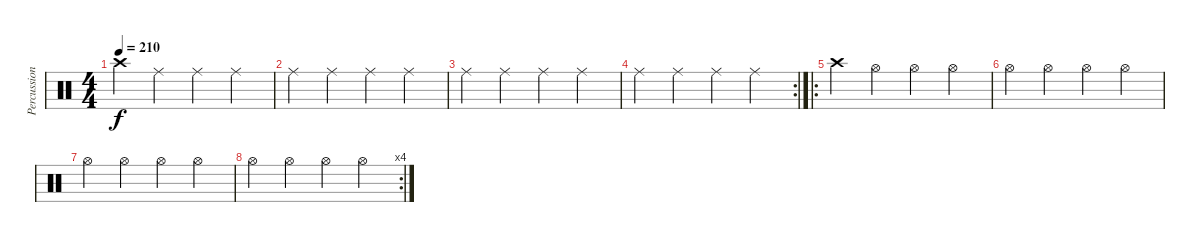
\track ("Percussion" "Percussion") {instrument percussion}
\staff {score}
\articulation defaults
\ts (4 4)
\tempo 210
\clef neutral
\ks c "Crash high (hit)".4{dy f} "Ride (middle)".4 "Ride (middle)".4 "Ride (middle)".4
|
"Ride (middle)".4 "Ride (middle)".4 "Ride (middle)".4 "Ride (middle)".4 |
"Ride (middle)".4 "Ride (middle)".4 "Ride (middle)".4 "Ride (middle)".4 |
\rc 2 "Ride (middle)".4 "Ride (middle)".4 "Ride (middle)".4 "Ride (middle)".4
|
\ro "Crash high (hit)".4 "Hi-Hat (open)".4 "Hi-Hat (open)".4 "Hi-Hat (open)".4
|
"Hi-Hat (open)".4 "Hi-Hat (open)".4 "Hi-Hat (open)".4 "Hi-Hat (open)".4 |
"Hi-Hat (open)".4 "Hi-Hat (open)".4 "Hi-Hat (open)".4 "Hi-Hat (open)".4 |
\rc 4 "Hi-Hat (open)".4 "Hi-Hat (open)".4 "Hi-Hat (open)".4 "Hi-Hat (open)".4
